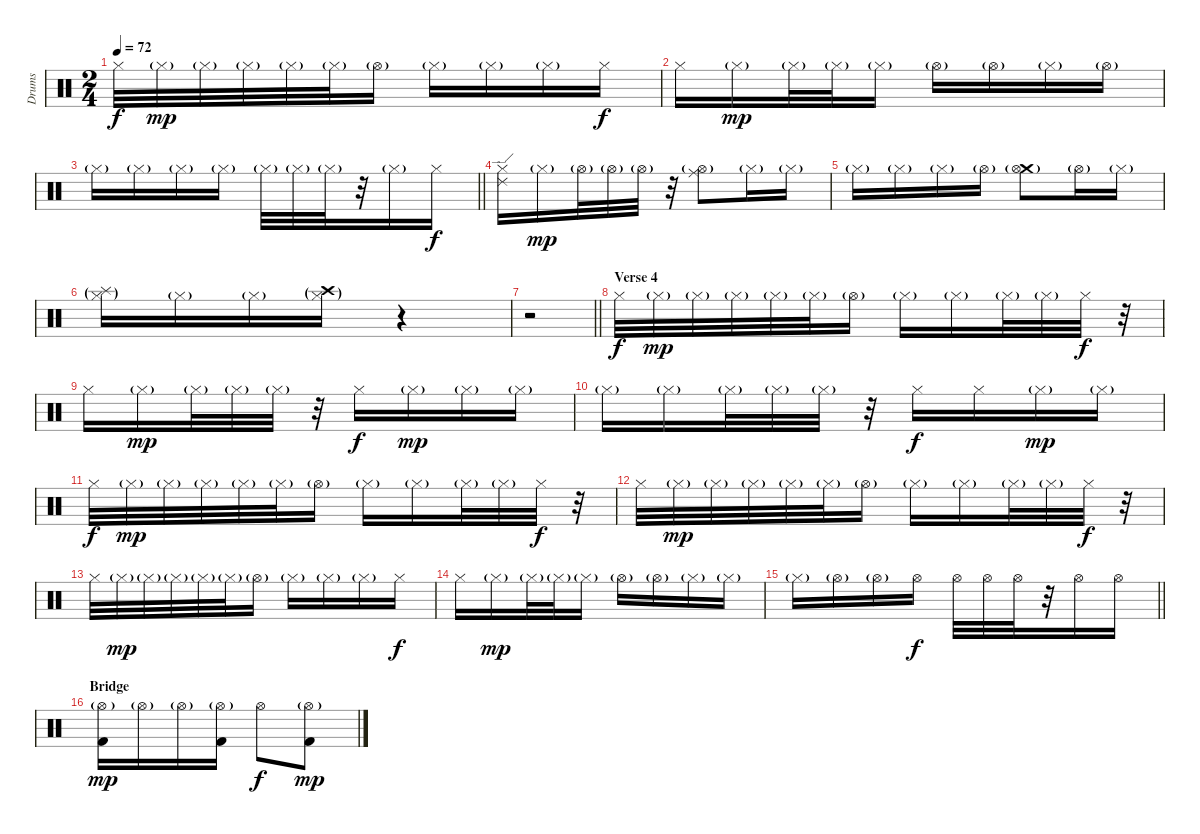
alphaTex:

\track ("Drums" "Drums") {instrument percussion}
\staff {score}
\articulation defaults
\ts (2 4)
\tempo 72
\clef neutral
\ks c "Hi-Hat (closed)".32{dy f} "Hi-Hat (closed)"{g}.32{dy mp} "Hi-Hat (closed)"{g}.32 "Hi-Hat (closed)"{g}.32 "Hi-Hat (closed)"{g}.32 "Hi-Hat (closed)"{g}.32 "Hi-Hat (open)"{g}.16 "Hi-Hat (closed)"{g}.16 "Hi-Hat (closed)"{g}.16 "Hi-Hat (closed)"{g}.16 "Hi-Hat (closed)".16{dy f}
|
"Hi-Hat (closed)".16 "Hi-Hat (closed)"{g}.16{dy mp} "Hi-Hat (closed)"{g}.32 "Hi-Hat (closed)"{g}.32 "Hi-Hat (closed)"{g}.16 "Hi-Hat (open)"{g}.16 "Hi-Hat (open)"{g}.16 "Hi-Hat (closed)"{g}.16 "Hi-Hat (open)"{g}.16 |
\barLineRight lightlight "Hi-Hat (closed)"{g}.16 "Hi-Hat (closed)"{g}.16 "Hi-Hat (closed)"{g}.16 "Hi-Hat (closed)"{g}.16 "Hi-Hat (closed)"{g}.32 "Hi-Hat (closed)"{g}.32 "Hi-Hat (closed)"{g}.32
r.32 "Hi-Hat (closed)"{g}.16 "Hi-Hat (closed)".16{dy f} |
("Ride (edge) 2" "Hi-Hat (closed)").16 "Hi-Hat (closed)"{g}.16{dy mp} "Hi-Hat (open)"{g}.32 "Hi-Hat (open)"{g}.32 "Hi-Hat (open)"{g}.32 r.32 ("Ride (middle)" "Hi-Hat (open)"{g}).8 "Hi-Hat (closed)"{g}.16 "Hi-Hat (closed)"{g}.16 |
"Hi-Hat (closed)"{g}.16 "Hi-Hat (closed)"{g}.16 "Hi-Hat (closed)"{g}.16 "Hi-Hat (open)"{g}.16 ("Crash medium (hit)"{g} "Hi-Hat (open)"{g}).8 "Hi-Hat (open)"{g}.16 "Hi-Hat (closed)"{g}.16 |
("Splash (hit)"{g} "Hi-Hat (closed)"{g}).16 "Hi-Hat (closed)"{g}.16 "Hi-Hat (closed)"{g}.16 ("Crash high (hit)"{g} "Hi-Hat (closed)"{g}).16 r.4 |
\barLineRight lightlight
r.2 |
\section ("" "Verse 4")
"Hi-Hat (closed)".32{dy f} "Hi-Hat (closed)"{g}.32{dy mp} "Hi-Hat (closed)"{g}.32 "Hi-Hat (closed)"{g}.32 "Hi-Hat (closed)"{g}.32 "Hi-Hat (closed)"{g}.32 "Hi-Hat (open)"{g}.16 "Hi-Hat (closed)"{g}.16 "Hi-Hat (closed)"{g}.16 "Hi-Hat (closed)"{g}.32 "Hi-Hat (closed)"{g}.32 "Hi-Hat (closed)".32{dy f} r.32 |
"Hi-Hat (closed)".16 "Hi-Hat (closed)"{g}.16{dy mp} "Hi-Hat (closed)"{g}.32 "Hi-Hat (closed)"{g}.32 "Hi-Hat (closed)"{g}.32 r.32 "Hi-Hat (closed)".16{dy f} "Hi-Hat (closed)"{g}.16{dy mp} "Hi-Hat (closed)"{g}.16 "Hi-Hat (closed)"{g}.16 |
"Hi-Hat (closed)"{g}.16 "Hi-Hat (closed)"{g}.16 "Hi-Hat (closed)"{g}.32 "Hi-Hat (closed)"{g}.32 "Hi-Hat (closed)"{g}.32 r.32 "Hi-Hat (closed)".16{dy f} "Hi-Hat (closed)".16 "Hi-Hat (closed)"{g}.16{dy mp} "Hi-Hat (closed)"{g}.16 |
"Hi-Hat (closed)".32{dy f} "Hi-Hat (closed)"{g}.32{dy mp} "Hi-Hat (closed)"{g}.32 "Hi-Hat (closed)"{g}.32 "Hi-Hat (closed)"{g}.32 "Hi-Hat (closed)"{g}.32 "Hi-Hat (open)"{g}.16 "Hi-Hat (closed)"{g}.16 "Hi-Hat (closed)"{g}.16 "Hi-Hat (closed)"{g}.32 "Hi-Hat (closed)"{g}.32 "Hi-Hat (closed)".32{dy f} r.32 |
"Hi-Hat (closed)".32 "Hi-Hat (closed)"{g}.32{dy mp} "Hi-Hat (closed)"{g}.32 "Hi-Hat (closed)"{g}.32 "Hi-Hat (closed)"{g}.32 "Hi-Hat (closed)"{g}.32 "Hi-Hat (open)"{g}.16 "Hi-Hat (closed)"{g}.16 "Hi-Hat (closed)"{g}.16 "Hi-Hat (closed)"{g}.32 "Hi-Hat (closed)"{g}.32 "Hi-Hat (closed)".32{dy f} r.32 |
"Hi-Hat (closed)".32 "Hi-Hat (closed)"{g}.32{dy mp} "Hi-Hat (closed)"{g}.32 "Hi-Hat (closed)"{g}.32 "Hi-Hat (closed)"{g}.32 "Hi-Hat (closed)"{g}.32 "Hi-Hat (open)"{g}.16 "Hi-Hat (closed)"{g}.16 "Hi-Hat (closed)"{g}.16 "Hi-Hat (closed)"{g}.16 "Hi-Hat (closed)".16{dy f} |
"Hi-Hat (closed)".16 "Hi-Hat (closed)"{g}.16{dy mp} "Hi-Hat (closed)"{g}.32 "Hi-Hat (closed)"{g}.32 "Hi-Hat (closed)"{g}.16 "Hi-Hat (open)"{g}.16 "Hi-Hat (open)"{g}.16 "Hi-Hat (closed)"{g}.16 "Hi-Hat (closed)"{g}.16 |
\barLineRight lightlight "Hi-Hat (closed)"{g}.16 "Hi-Hat (open)"{g}.16 "Hi-Hat (open)"{g}.16 "Hi-Hat (open)".16{dy f} "Hi-Hat (open)".32 "Hi-Hat (open)".32 "Hi-Hat (open)".32
r.32 "Hi-Hat (open)".16 "Hi-Hat (open)".16 |
\section ("" "Bridge")
("Hi-Hat (open)"{g} "Kick (hit) 2").16{dy mp} "Hi-Hat (open)"{g}.16 "Hi-Hat (open)"{g}.16 ("Hi-Hat (open)"{g} "Kick (hit) 2").16 "Hi-Hat (open)".8{dy f} ("Hi-Hat (open)"{g} "Kick (hit) 2").8{dy mp}
